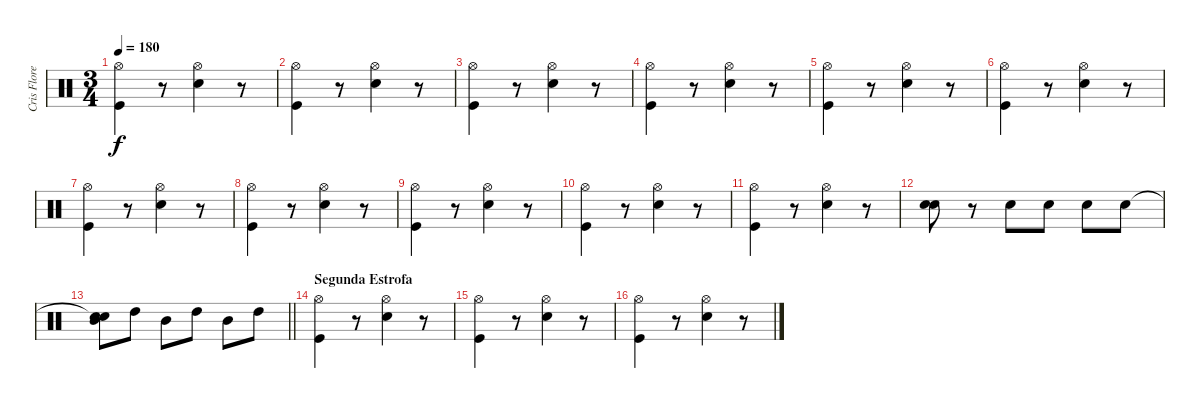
\track ("Cris Flores" "Cris Flore") {instrument percussion}
\staff {score}
\articulation defaults
\ts (3 4)
\tempo 180
\clef neutral
\ks c
("Kick (hit)" "Hi-Hat (open)").4{dy f} r.8 ("Snare (hit) 2" "Hi-Hat (open)").4 r.8 |
("Kick (hit)" "Hi-Hat (open)").4 r.8 ("Snare (hit) 2" "Hi-Hat (open)").4 r.8 |
("Kick (hit)" "Hi-Hat (open)").4 r.8 ("Snare (hit) 2" "Hi-Hat (open)").4 r.8 |
("Kick (hit)" "Hi-Hat (open)").4 r.8 ("Snare (hit) 2" "Hi-Hat (open)").4 r.8 |
("Kick (hit)" "Hi-Hat (open)").4 r.8 ("Snare (hit) 2" "Hi-Hat (open)").4 r.8 |
("Kick (hit)" "Hi-Hat (open)").4 r.8 ("Snare (hit) 2" "Hi-Hat (open)").4 r.8 |
("Kick (hit)" "Hi-Hat (open)").4 r.8 ("Snare (hit) 2" "Hi-Hat (open)").4 r.8 |
("Kick (hit)" "Hi-Hat (open)").4 r.8 ("Snare (hit) 2" "Hi-Hat (open)").4 r.8 |
("Kick (hit)" "Hi-Hat (open)").4 r.8 ("Snare (hit) 2" "Hi-Hat (open)").4 r.8 |
("Kick (hit)" "Hi-Hat (open)").4 r.8 ("Snare (hit) 2" "Hi-Hat (open)").4 r.8 |
("Kick (hit)" "Hi-Hat (open)").4 r.8 ("Snare (hit) 2" "Hi-Hat (open)").4 r.8 |
("Electric Snare (hit)" "Snare (hit) 2").8 r.8 "Snare (hit) 2".8 "Snare (hit) 2".8 "Snare (hit) 2".8 "Snare (hit) 2".8 |
\barLineRight lightlight
("Snare (hit)"{t} "Mid Tom (hit)" "Snare (hit)").8 "High Tom (hit)".8 "Mid Tom (hit)".8 "High Tom (hit)".8 "Mid Tom (hit)".8 "High Tom (hit)".8 |
\section ("" "Segunda Estrofa")
("Kick (hit)" "Hi-Hat (open)").4 r.8 ("Snare (hit) 2" "Hi-Hat (open)").4 r.8 |
("Kick (hit)" "Hi-Hat (open)").4 r.8 ("Snare (hit) 2" "Hi-Hat (open)").4 r.8 |
("Kick (hit)" "Hi-Hat (open)").4 r.8 ("Snare (hit) 2" "Hi-Hat (open)").4 r.8
